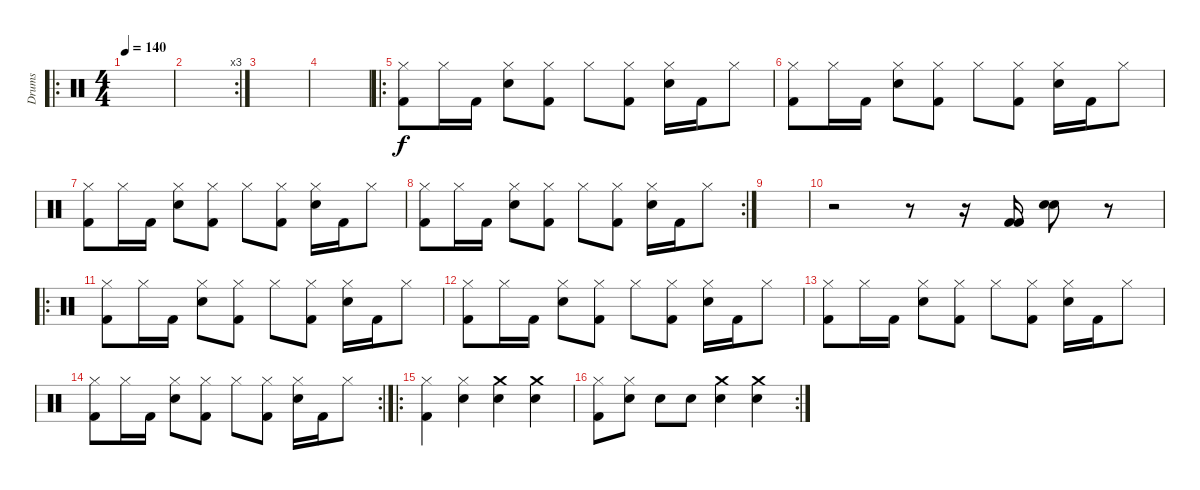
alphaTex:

\track ("Drums" "Drums") {instrument percussion}
\staff {score}
\articulation defaults
\ro
\ts (4 4)
\tempo 140
\clef neutral
\ks c
|
\rc 3
|
|
|
\ro
("Kick (hit) 2" "Hi-Hat (closed)").8 "Hi-Hat (closed)".16 "Kick (hit) 2".16 ("Snare (hit) 2" "Hi-Hat (closed)").8 ("Kick (hit) 2" "Hi-Hat (closed)").8 "Hi-Hat (closed)".8 ("Kick (hit) 2" "Hi-Hat (closed)").8 ("Snare (hit) 2" "Hi-Hat (closed)").16 "Kick (hit) 2".16 "Hi-Hat (closed)".8 |
("Kick (hit) 2" "Hi-Hat (closed)").8 "Hi-Hat (closed)".16 "Kick (hit) 2".16 ("Snare (hit) 2" "Hi-Hat (closed)").8 ("Kick (hit) 2" "Hi-Hat (closed)").8 "Hi-Hat (closed)".8 ("Kick (hit) 2" "Hi-Hat (closed)").8 ("Snare (hit) 2" "Hi-Hat (closed)").16 "Kick (hit) 2".16 "Hi-Hat (closed)".8 |
("Kick (hit) 2" "Hi-Hat (closed)").8 "Hi-Hat (closed)".16 "Kick (hit) 2".16 ("Snare (hit) 2" "Hi-Hat (closed)").8 ("Kick (hit) 2" "Hi-Hat (closed)").8 "Hi-Hat (closed)".8 ("Kick (hit) 2" "Hi-Hat (closed)").8 ("Snare (hit) 2" "Hi-Hat (closed)").16 "Kick (hit) 2".16 "Hi-Hat (closed)".8 |
\rc 2
("Kick (hit) 2" "Hi-Hat (closed)").8 "Hi-Hat (closed)".16 "Kick (hit) 2".16 ("Snare (hit) 2" "Hi-Hat (closed)").8 ("Kick (hit) 2" "Hi-Hat (closed)").8 "Hi-Hat (closed)".8 ("Kick (hit) 2" "Hi-Hat (closed)").8 ("Snare (hit) 2" "Hi-Hat (closed)").16 "Kick (hit) 2".16 "Hi-Hat (closed)".8 |
|
r.2 r.8 r.16 ("Kick (hit) 2" "Kick (hit) 2").16 ("Snare (hit) 2" "Snare (hit) 2").8 r.8 |
\ro
("Kick (hit) 2" "Hi-Hat (closed)").8 "Hi-Hat (closed)".16 "Kick (hit) 2".16 ("Snare (hit) 2" "Hi-Hat (closed)").8 ("Kick (hit) 2" "Hi-Hat (closed)").8 "Hi-Hat (closed)".8 ("Kick (hit) 2" "Hi-Hat (closed)").8 ("Snare (hit) 2" "Hi-Hat (closed)").16 "Kick (hit) 2".16 "Hi-Hat (closed)".8 |
("Kick (hit) 2" "Hi-Hat (closed)").8 "Hi-Hat (closed)".16 "Kick (hit) 2".16 ("Snare (hit) 2" "Hi-Hat (closed)").8 ("Kick (hit) 2" "Hi-Hat (closed)").8 "Hi-Hat (closed)".8 ("Kick (hit) 2" "Hi-Hat (closed)").8 ("Snare (hit) 2" "Hi-Hat (closed)").16 "Kick (hit) 2".16 "Hi-Hat (closed)".8 |
("Kick (hit) 2" "Hi-Hat (closed)").8 "Hi-Hat (closed)".16 "Kick (hit) 2".16 ("Snare (hit) 2" "Hi-Hat (closed)").8 ("Kick (hit) 2" "Hi-Hat (closed)").8 "Hi-Hat (closed)".8 ("Kick (hit) 2" "Hi-Hat (closed)").8 ("Snare (hit) 2" "Hi-Hat (closed)").16 "Kick (hit) 2".16 "Hi-Hat (closed)".8 |
\rc 2
("Kick (hit) 2" "Hi-Hat (closed)").8 "Hi-Hat (closed)".16 "Kick (hit) 2".16 ("Snare (hit) 2" "Hi-Hat (closed)").8 ("Kick (hit) 2" "Hi-Hat (closed)").8 "Hi-Hat (closed)".8 ("Kick (hit) 2" "Hi-Hat (closed)").8 ("Snare (hit) 2" "Hi-Hat (closed)").16 "Kick (hit) 2".16 "Hi-Hat (closed)".8 |
\ro
("Kick (hit) 2" "Hi-Hat (closed)").4 ("Snare (hit) 2" "Hi-Hat (closed)").4 ("Crash medium (hit)" "Snare (hit) 2").4 ("Crash medium (hit)" "Snare (hit) 2").4 |
\rc 2
("Kick (hit) 2" "Hi-Hat (closed)").8 ("Snare (hit) 2" "Hi-Hat (closed)").8 "Snare (hit) 2".8 "Snare (hit) 2".8 ("Crash medium (hit)" "Snare (hit) 2").4 ("Crash medium (hit)" "Snare (hit) 2").4
